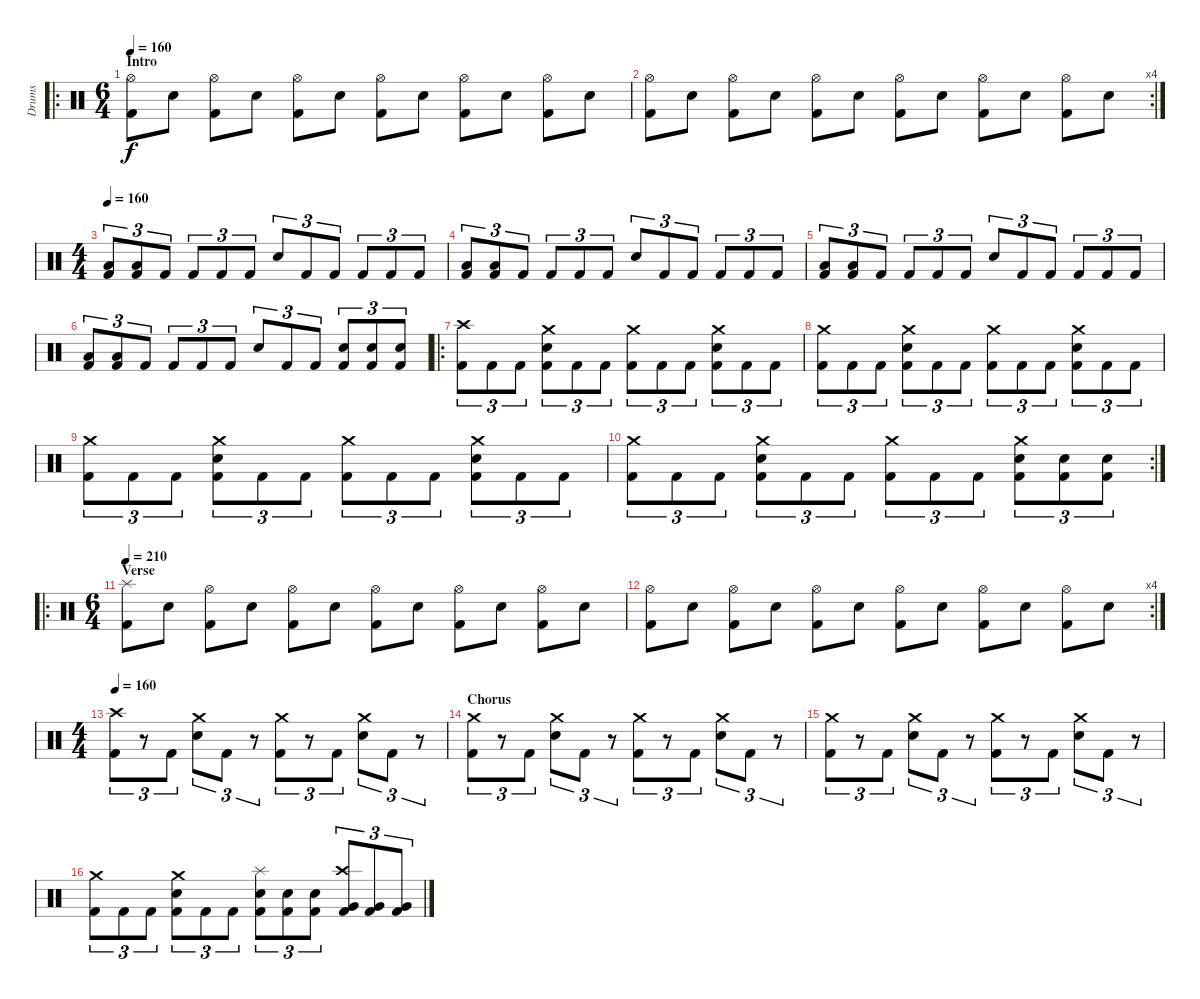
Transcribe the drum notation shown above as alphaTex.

\track ("Drums" "Drums") {instrument percussion}
\staff {score}
\articulation defaults
\ro
\ts (6 4)
\section ("" "Intro")
\tempo 160
\tempo 210
\tempo 160
\clef neutral
\ks c
("Hi-Hat (open)" "Kick (hit) 2").8{dy f} "Electric Snare (hit)".8 ("Hi-Hat (open)" "Kick (hit) 2").8 "Electric Snare (hit)".8 ("Hi-Hat (open)" "Kick (hit) 2").8 "Electric Snare (hit)".8 ("Hi-Hat (open)" "Kick (hit) 2").8 "Electric Snare (hit)".8 ("Hi-Hat (open)" "Kick (hit) 2").8 "Electric Snare (hit)".8 ("Hi-Hat (open)" "Kick (hit) 2").8 "Electric Snare (hit)".8 |
\rc 4
("Hi-Hat (open)" "Kick (hit) 2").8 "Electric Snare (hit)".8 ("Hi-Hat (open)" "Kick (hit) 2").8 "Electric Snare (hit)".8 ("Hi-Hat (open)" "Kick (hit) 2").8 "Electric Snare (hit)".8 ("Hi-Hat (open)" "Kick (hit) 2").8 "Electric Snare (hit)".8 ("Hi-Hat (open)" "Kick (hit) 2").8 "Electric Snare (hit)".8 ("Hi-Hat (open)" "Kick (hit) 2").8 "Electric Snare (hit)".8 |
\ts (4 4)
\tempo 160
("Low Tom (hit)" "Kick (hit) 2").8{tu (3 2)} ("Low Tom (hit)" "Kick (hit) 2").8{tu (3 2)} "Kick (hit) 2".8{tu (3 2)} "Kick (hit) 2".8{tu (3 2)} "Kick (hit) 2".8{tu (3 2)} "Kick (hit) 2".8{tu (3 2)} "Electric Snare (hit)".8{tu (3 2)} "Kick (hit) 2".8{tu (3 2)} "Kick (hit) 2".8{tu (3 2)} "Kick (hit) 2".8{tu (3 2)} "Kick (hit) 2".8{tu (3 2)} "Kick (hit) 2".8{tu (3 2)} |
("Low Tom (hit)" "Kick (hit) 2").8{tu (3 2)} ("Low Tom (hit)" "Kick (hit) 2").8{tu (3 2)} "Kick (hit) 2".8{tu (3 2)} "Kick (hit) 2".8{tu (3 2)} "Kick (hit) 2".8{tu (3 2)} "Kick (hit) 2".8{tu (3 2)} "Electric Snare (hit)".8{tu (3 2)} "Kick (hit) 2".8{tu (3 2)} "Kick (hit) 2".8{tu (3 2)} "Kick (hit) 2".8{tu (3 2)} "Kick (hit) 2".8{tu (3 2)} "Kick (hit) 2".8{tu (3 2)} |
("Low Tom (hit)" "Kick (hit) 2").8{tu (3 2)} ("Low Tom (hit)" "Kick (hit) 2").8{tu (3 2)} "Kick (hit) 2".8{tu (3 2)} "Kick (hit) 2".8{tu (3 2)} "Kick (hit) 2".8{tu (3 2)} "Kick (hit) 2".8{tu (3 2)} "Electric Snare (hit)".8{tu (3 2)} "Kick (hit) 2".8{tu (3 2)} "Kick (hit) 2".8{tu (3 2)} "Kick (hit) 2".8{tu (3 2)} "Kick (hit) 2".8{tu (3 2)} "Kick (hit) 2".8{tu (3 2)} |
("Low Tom (hit)" "Kick (hit) 2").8{tu (3 2)} ("Low Tom (hit)" "Kick (hit) 2").8{tu (3 2)} "Kick (hit) 2".8{tu (3 2)} "Kick (hit) 2".8{tu (3 2)} "Kick (hit) 2".8{tu (3 2)} "Kick (hit) 2".8{tu (3 2)} "Electric Snare (hit)".8{tu (3 2)} "Kick (hit) 2".8{tu (3 2)} "Kick (hit) 2".8{tu (3 2)} ("Electric Snare (hit)" "Kick (hit) 2").8{tu (3 2)} ("Electric Snare (hit)" "Kick (hit) 2").8{tu (3 2)} ("Electric Snare (hit)" "Kick (hit) 2").8{tu (3 2)} |
\ro
("Crash high (hit)" "Kick (hit) 2").8{tu (3 2)} "Kick (hit) 2".8{tu (3 2)} "Kick (hit) 2".8{tu (3 2)} ("Crash medium (hit)" "Electric Snare (hit)" "Kick (hit) 2").8{tu (3 2)} "Kick (hit) 2".8{tu (3 2)} "Kick (hit) 2".8{tu (3 2)} ("Crash medium (hit)" "Kick (hit) 2").8{tu (3 2)} "Kick (hit) 2".8{tu (3 2)} "Kick (hit) 2".8{tu (3 2)} ("Crash medium (hit)" "Electric Snare (hit)" "Kick (hit) 2").8{tu (3 2)} "Kick (hit) 2".8{tu (3 2)} "Kick (hit) 2".8{tu (3 2)} |
("Crash medium (hit)" "Kick (hit) 2").8{tu (3 2)} "Kick (hit) 2".8{tu (3 2)} "Kick (hit) 2".8{tu (3 2)} ("Crash medium (hit)" "Electric Snare (hit)" "Kick (hit) 2").8{tu (3 2)} "Kick (hit) 2".8{tu (3 2)} "Kick (hit) 2".8{tu (3 2)} ("Crash medium (hit)" "Kick (hit) 2").8{tu (3 2)} "Kick (hit) 2".8{tu (3 2)} "Kick (hit) 2".8{tu (3 2)} ("Crash medium (hit)" "Electric Snare (hit)" "Kick (hit) 2").8{tu (3 2)} "Kick (hit) 2".8{tu (3 2)} "Kick (hit) 2".8{tu (3 2)} |
("Crash medium (hit)" "Kick (hit) 2").8{tu (3 2)} "Kick (hit) 2".8{tu (3 2)} "Kick (hit) 2".8{tu (3 2)} ("Crash medium (hit)" "Electric Snare (hit)" "Kick (hit) 2").8{tu (3 2)} "Kick (hit) 2".8{tu (3 2)} "Kick (hit) 2".8{tu (3 2)} ("Crash medium (hit)" "Kick (hit) 2").8{tu (3 2)} "Kick (hit) 2".8{tu (3 2)} "Kick (hit) 2".8{tu (3 2)} ("Crash medium (hit)" "Electric Snare (hit)" "Kick (hit) 2").8{tu (3 2)} "Kick (hit) 2".8{tu (3 2)} "Kick (hit) 2".8{tu (3 2)} |
\rc 2
("Crash medium (hit)" "Kick (hit) 2").8{tu (3 2)} "Kick (hit) 2".8{tu (3 2)} "Kick (hit) 2".8{tu (3 2)} ("Crash medium (hit)" "Electric Snare (hit)" "Kick (hit) 2").8{tu (3 2)} "Kick (hit) 2".8{tu (3 2)} "Kick (hit) 2".8{tu (3 2)} ("Crash medium (hit)" "Kick (hit) 2").8{tu (3 2)} "Kick (hit) 2".8{tu (3 2)} "Kick (hit) 2".8{tu (3 2)} ("Crash medium (hit)" "Electric Snare (hit)" "Kick (hit) 2").8{tu (3 2)} ("Electric Snare (hit)" "Kick (hit) 2").8{tu (3 2)} ("Electric Snare (hit)" "Kick (hit) 2").8{tu (3 2)} |
\ro
\ts (6 4)
\section ("" "Verse")
\tempo 210
("Splash (hit)" "Kick (hit) 2").8 "Electric Snare (hit)".8 ("Hi-Hat (open)" "Kick (hit) 2").8 "Electric Snare (hit)".8 ("Hi-Hat (open)" "Kick (hit) 2").8 "Electric Snare (hit)".8 ("Hi-Hat (open)" "Kick (hit) 2").8 "Electric Snare (hit)".8 ("Hi-Hat (open)" "Kick (hit) 2").8 "Electric Snare (hit)".8 ("Hi-Hat (open)" "Kick (hit) 2").8 "Electric Snare (hit)".8 |
\rc 4
("Hi-Hat (open)" "Kick (hit) 2").8 "Electric Snare (hit)".8 ("Hi-Hat (open)" "Kick (hit) 2").8 "Electric Snare (hit)".8 ("Hi-Hat (open)" "Kick (hit) 2").8 "Electric Snare (hit)".8 ("Hi-Hat (open)" "Kick (hit) 2").8 "Electric Snare (hit)".8 ("Hi-Hat (open)" "Kick (hit) 2").8 "Electric Snare (hit)".8 ("Hi-Hat (open)" "Kick (hit) 2").8 "Electric Snare (hit)".8 |
\ts (4 4)
\tempo 160
("Crash high (hit)" "Kick (hit) 2").8{tu (3 2)} r.8{tu (3 2)} "Kick (hit) 2".8{tu (3 2)} ("Crash medium (hit)" "Electric Snare (hit)").8{tu (3 2)} "Kick (hit) 2".8{tu (3 2)} r.8{tu (3 2)} ("Crash medium (hit)" "Kick (hit) 2").8{tu (3 2)} r.8{tu (3 2)} "Kick (hit) 2".8{tu (3 2)} ("Crash medium (hit)" "Electric Snare (hit)").8{tu (3 2)} "Kick (hit) 2".8{tu (3 2)} r.8{tu (3 2)} |
\section ("" "Chorus")
("Crash medium (hit)" "Kick (hit) 2").8{tu (3 2)} r.8{tu (3 2)} "Kick (hit) 2".8{tu (3 2)} ("Crash medium (hit)" "Electric Snare (hit)").8{tu (3 2)} "Kick (hit) 2".8{tu (3 2)} r.8{tu (3 2)} ("Crash medium (hit)" "Kick (hit) 2").8{tu (3 2)} r.8{tu (3 2)} "Kick (hit) 2".8{tu (3 2)} ("Crash medium (hit)" "Electric Snare (hit)").8{tu (3 2)} "Kick (hit) 2".8{tu (3 2)} r.8{tu (3 2)} |
("Crash medium (hit)" "Kick (hit) 2").8{tu (3 2)} r.8{tu (3 2)} "Kick (hit) 2".8{tu (3 2)} ("Crash medium (hit)" "Electric Snare (hit)").8{tu (3 2)} "Kick (hit) 2".8{tu (3 2)} r.8{tu (3 2)} ("Crash medium (hit)" "Kick (hit) 2").8{tu (3 2)} r.8{tu (3 2)} "Kick (hit) 2".8{tu (3 2)} ("Crash medium (hit)" "Electric Snare (hit)").8{tu (3 2)} "Kick (hit) 2".8{tu (3 2)} r.8{tu (3 2)} |
("Crash medium (hit)" "Kick (hit) 2").8{tu (3 2)} "Kick (hit) 2".8{tu (3 2)} "Kick (hit) 2".8{tu (3 2)} ("Crash medium (hit)" "Electric Snare (hit)" "Kick (hit) 2").8{tu (3 2)} "Kick (hit) 2".8{tu (3 2)} "Kick (hit) 2".8{tu (3 2)} ("Splash (hit)" "Electric Snare (hit)" "Kick (hit) 2").8{tu (3 2)} ("Electric Snare (hit)" "Kick (hit) 2").8{tu (3 2)} ("Electric Snare (hit)" "Kick (hit) 2").8{tu (3 2)} ("Crash high (hit)" "Very Low Tom (hit)" "Kick (hit) 2").8{tu (3 2)} ("Very Low Tom (hit)" "Kick (hit) 2").8{tu (3 2)} ("Very Low Tom (hit)" "Kick (hit) 2").8{tu (3 2)}
